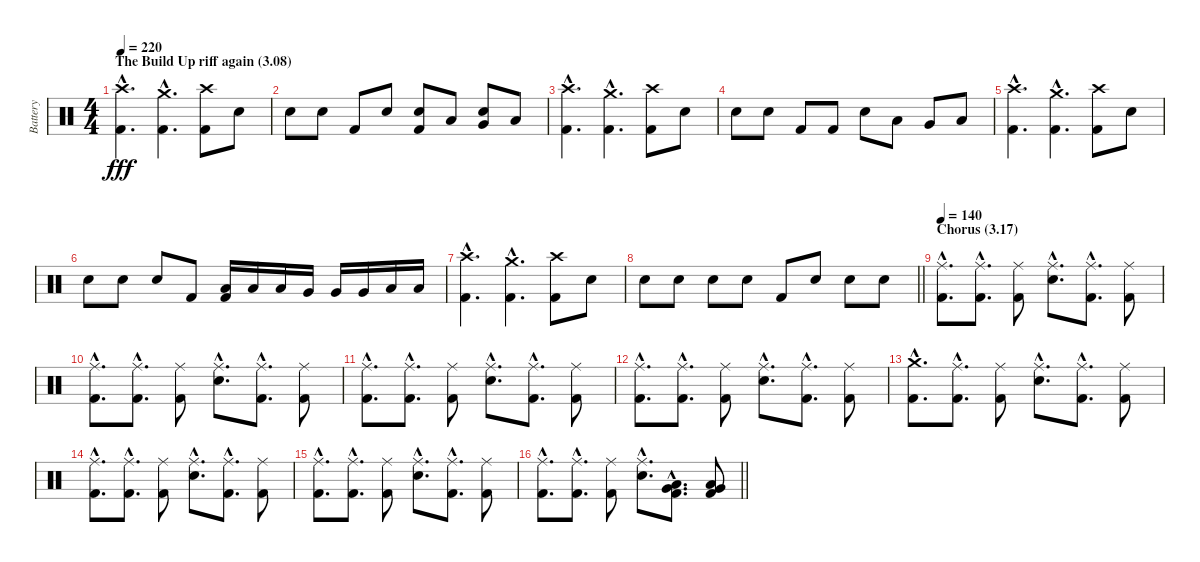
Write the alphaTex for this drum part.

\track ("Battery" "Battery") {instrument percussion}
\staff {score}
\articulation defaults
\ts (4 4)
\section ("" "The Build Up riff again (3.08)")
\tempo 220
\clef neutral
\ks c
("Crash high (hit)"{hac} "Kick (hit) 2"{hac}).4{d dy fff} ("Crash medium (hit)"{hac} "Kick (hit) 2"{hac}).4{d} ("Crash high (hit)" "Kick (hit) 2").8 "Electric Snare (hit)".8 |
"Electric Snare (hit)".8 "Electric Snare (hit)".8 "Kick (hit) 2".8 "Electric Snare (hit)".8 ("Electric Snare (hit)" "Kick (hit) 2").8 "Low Tom (hit)".8 ("Very Low Tom (hit)" "Electric Snare (hit)").8 "Low Floor Tom (hit)".8 |
("Crash high (hit)"{hac} "Kick (hit) 2"{hac}).4{d} ("Crash medium (hit)"{hac} "Kick (hit) 2"{hac}).4{d} ("Crash high (hit)" "Kick (hit) 2").8 "Electric Snare (hit)".8 |
"Electric Snare (hit)".8 "Electric Snare (hit)".8 "Kick (hit) 2".8 "Kick (hit) 2".8 "Electric Snare (hit)".8 "Low Tom (hit)".8 "Very Low Tom (hit)".8 "Low Floor Tom (hit)".8 |
("Crash high (hit)"{hac} "Kick (hit) 2"{hac}).4{d} ("Crash medium (hit)"{hac} "Kick (hit) 2"{hac}).4{d} ("Crash high (hit)" "Kick (hit) 2").8 "Electric Snare (hit)".8 |
"Electric Snare (hit)".8 "Electric Snare (hit)".8 "Electric Snare (hit)".8 "Kick (hit) 2".8 ("Low Tom (hit)" "Kick (hit) 2").16 "Low Tom (hit)".16 "Low Tom (hit)".16 "Very Low Tom (hit)".16 "Very Low Tom (hit)".16 "Very Low Tom (hit)".16 "Low Floor Tom (hit)".16 "Low Floor Tom (hit)".16 |
("Crash high (hit)"{hac} "Kick (hit) 2"{hac}).4{d} ("Crash medium (hit)"{hac} "Kick (hit) 2"{hac}).4{d} ("Crash high (hit)" "Kick (hit) 2").8 "Electric Snare (hit)".8 |
\barLineRight lightlight "Electric Snare (hit)".8 "Electric Snare (hit)".8 "Electric Snare (hit)".8 "Electric Snare (hit)".8 "Kick (hit) 2".8 "Electric Snare (hit)".8 "Electric Snare (hit)".8 "Electric Snare (hit)".8
|
\section ("" "Chorus (3.17)")
\tempo 140
("Ride (middle)"{hac} "Kick (hit) 2"{hac}).8{d} ("Ride (middle)"{hac} "Kick (hit) 2"{hac}).8{d} ("Ride (middle)" "Kick (hit) 2").8 ("Ride (middle)"{hac} "Electric Snare (hit)"{hac}).8{d} ("Ride (middle)"{hac} "Kick (hit) 2"{hac}).8{d} ("Ride (middle)" "Kick (hit) 2").8 |
("Ride (middle)"{hac} "Kick (hit) 2"{hac}).8{d} ("Ride (middle)"{hac} "Kick (hit) 2"{hac}).8{d} ("Ride (middle)" "Kick (hit) 2").8 ("Ride (middle)"{hac} "Electric Snare (hit)"{hac}).8{d} ("Ride (middle)"{hac} "Kick (hit) 2"{hac}).8{d} ("Ride (middle)" "Kick (hit) 2").8 |
("Ride (middle)"{hac} "Kick (hit) 2"{hac}).8{d} ("Ride (middle)"{hac} "Kick (hit) 2"{hac}).8{d} ("Ride (middle)" "Kick (hit) 2").8 ("Ride (middle)"{hac} "Electric Snare (hit)"{hac}).8{d} ("Ride (middle)"{hac} "Kick (hit) 2"{hac}).8{d} ("Ride (middle)" "Kick (hit) 2").8 |
("Ride (middle)"{hac} "Kick (hit) 2"{hac}).8{d} ("Ride (middle)"{hac} "Kick (hit) 2"{hac}).8{d} ("Ride (middle)" "Kick (hit) 2").8 ("Ride (middle)"{hac} "Electric Snare (hit)"{hac}).8{d} ("Ride (middle)"{hac} "Kick (hit) 2"{hac}).8{d} ("Ride (middle)" "Kick (hit) 2").8 |
("Crash medium (hit)"{hac} "Kick (hit) 2"{hac}).8{d} ("Ride (middle)"{hac} "Kick (hit) 2"{hac}).8{d} ("Ride (middle)" "Kick (hit) 2").8 ("Ride (middle)"{hac} "Electric Snare (hit)"{hac}).8{d} ("Ride (middle)"{hac} "Kick (hit) 2"{hac}).8{d} ("Ride (middle)" "Kick (hit) 2").8 |
("Ride (middle)"{hac} "Kick (hit) 2"{hac}).8{d} ("Ride (middle)"{hac} "Kick (hit) 2"{hac}).8{d} ("Ride (middle)" "Kick (hit) 2").8 ("Ride (middle)"{hac} "Electric Snare (hit)"{hac}).8{d} ("Ride (middle)"{hac} "Kick (hit) 2"{hac}).8{d} ("Ride (middle)" "Kick (hit) 2").8 |
("Ride (middle)"{hac} "Kick (hit) 2"{hac}).8{d} ("Ride (middle)"{hac} "Kick (hit) 2"{hac}).8{d} ("Ride (middle)" "Kick (hit) 2").8 ("Ride (middle)"{hac} "Electric Snare (hit)"{hac}).8{d} ("Ride (middle)"{hac} "Kick (hit) 2"{hac}).8{d} ("Ride (middle)" "Kick (hit) 2").8 |
\barLineRight lightlight
("Ride (middle)"{hac} "Kick (hit) 2"{hac}).8{d} ("Ride (middle)"{hac} "Kick (hit) 2"{hac}).8{d} ("Ride (middle)" "Kick (hit) 2").8 ("Ride (middle)"{hac} "Electric Snare (hit)"{hac}).8{d} ("Very Low Tom (hit)"{hac} "Low Floor Tom (hit)"{hac} "Kick (hit) 2"{hac}).8{d} ("Very Low Tom (hit)" "Low Floor Tom (hit)" "Kick (hit) 2").8
